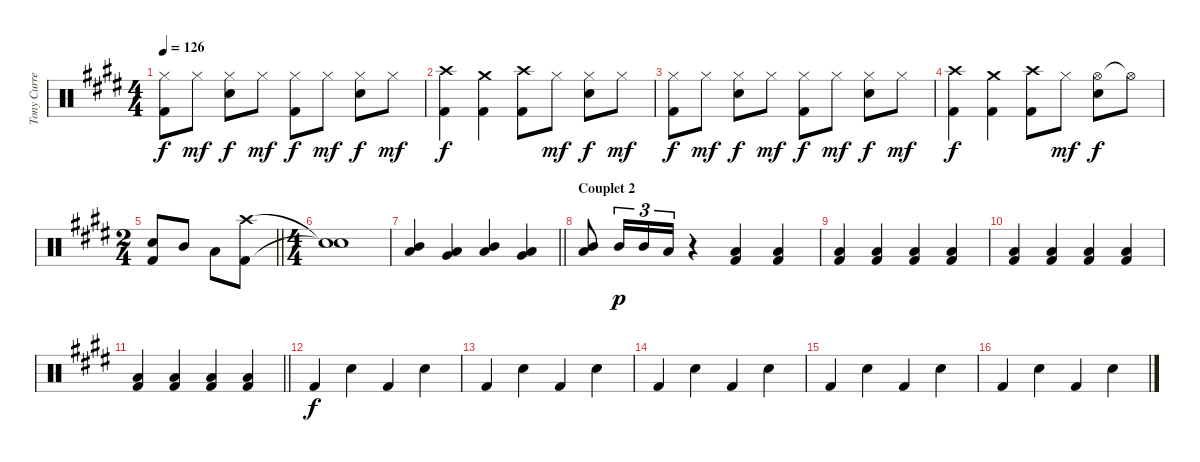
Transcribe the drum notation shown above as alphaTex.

\track ("Tony Currenti" "Tony Curre") {instrument percussion}
\staff {score}
\articulation defaults
\ts (4 4)
\tempo 126
\clef neutral
\ks e
("Hi-Hat (closed)" "Kick (hit) 2").8{dy f} "Hi-Hat (closed)".8{dy mf} ("Hi-Hat (closed)" "Snare (hit) 2").8{dy f} "Hi-Hat (closed)".8{dy mf} ("Hi-Hat (closed)" "Kick (hit) 2").8{dy f} "Hi-Hat (closed)".8{dy mf} ("Hi-Hat (closed)" "Snare (hit) 2").8{dy f} "Hi-Hat (closed)".8{dy mf} |
("Crash high (hit)" "Kick (hit) 2").4{dy f} ("Crash medium (hit)" "Kick (hit) 2").4 ("Crash high (hit)" "Kick (hit) 2").8 "Hi-Hat (closed)".8{dy mf} ("Hi-Hat (closed)" "Snare (hit) 2").8{dy f} "Hi-Hat (closed)".8{dy mf} |
("Hi-Hat (closed)" "Kick (hit) 2").8{dy f} "Hi-Hat (closed)".8{dy mf} ("Hi-Hat (closed)" "Snare (hit) 2").8{dy f} "Hi-Hat (closed)".8{dy mf} ("Hi-Hat (closed)" "Kick (hit) 2").8{dy f} "Hi-Hat (closed)".8{dy mf} ("Hi-Hat (closed)" "Snare (hit) 2").8{dy f} "Hi-Hat (closed)".8{dy mf} |
("Crash high (hit)" "Kick (hit) 2").4{dy f} ("Crash medium (hit)" "Kick (hit) 2").4 ("Crash high (hit)" "Kick (hit) 2").8 "Hi-Hat (closed)".8{dy mf} ("Hi-Hat (open)" "Snare (hit) 2").8{dy f} "Hi-Hat (open)"{t}.8 |
\ts (2 4)
\barLineRight lightlight
("Snare (hit) 2" "Kick (hit) 2").8 "Mid Tom (hit)".8 "Low Tom (hit)".8 ("Crash high (hit)" "Kick (hit) 2").8 |
\ts (4 4)
("Snare (hit)"{t} "Snare (hit)"{t}).1 |
\barLineRight lightlight
("Mid Tom (hit)" "Low Tom (hit)").4 ("Low Tom (hit)" "Very Low Tom (hit)").4 ("Mid Tom (hit)" "Low Tom (hit)").4 ("Low Tom (hit)" "Very Low Tom (hit)").4 |
\section ("" "Couplet 2")
("Mid Tom (hit)" "Low Tom (hit)").8 "Mid Tom (hit)".16{tu (3 2) dy p} "Mid Tom (hit)".16{tu (3 2)} "Low Tom (hit)".16{tu (3 2)} r.4 ("Low Tom (hit)" "Kick (hit) 2").4 ("Low Tom (hit)" "Kick (hit) 2").4 |
("Low Tom (hit)" "Kick (hit) 2").4 ("Low Tom (hit)" "Kick (hit) 2").4 ("Low Tom (hit)" "Kick (hit) 2").4 ("Low Tom (hit)" "Kick (hit) 2").4 |
("Low Tom (hit)" "Kick (hit) 2").4 ("Low Tom (hit)" "Kick (hit) 2").4 ("Low Tom (hit)" "Kick (hit) 2").4 ("Low Tom (hit)" "Kick (hit) 2").4 |
\barLineRight lightlight
("Low Tom (hit)" "Kick (hit) 2").4 ("Low Tom (hit)" "Kick (hit) 2").4 ("Low Tom (hit)" "Kick (hit) 2").4 ("Low Tom (hit)" "Kick (hit) 2").4 |
"Kick (hit) 2".4{dy f} "Snare (hit) 2".4 "Kick (hit) 2".4 "Snare (hit) 2".4 |
"Kick (hit) 2".4 "Snare (hit) 2".4 "Kick (hit) 2".4 "Snare (hit) 2".4 |
"Kick (hit) 2".4 "Snare (hit) 2".4 "Kick (hit) 2".4 "Snare (hit) 2".4 |
"Kick (hit) 2".4 "Snare (hit) 2".4 "Kick (hit) 2".4 "Snare (hit) 2".4 |
"Kick (hit) 2".4 "Snare (hit) 2".4 "Kick (hit) 2".4 "Snare (hit) 2".4
